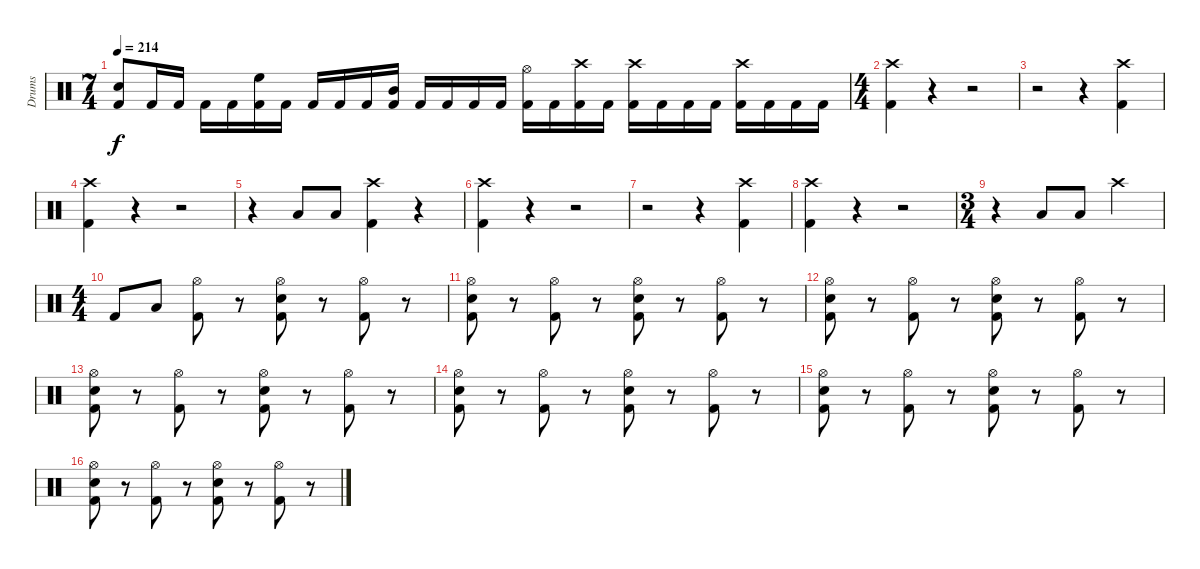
\track ("Drums" "Drums") {instrument percussion}
\staff {score}
\articulation defaults
\ts (7 4)
\tempo 214
\clef neutral
\ks c
("Kick (hit) 2" "Snare (hit) 2").8{dy f} "Kick (hit) 2".16 "Kick (hit) 2".16 "Kick (hit) 2".16 "Kick (hit) 2".16 ("Kick (hit) 2" "High Floor Tom (hit)").16 "Kick (hit) 2".16 "Kick (hit) 2".16 "Kick (hit) 2".16 "Kick (hit) 2".16 ("Kick (hit) 2" "Mid Tom (hit)").16 "Kick (hit) 2".16 "Kick (hit) 2".16 "Kick (hit) 2".16 "Kick (hit) 2".16 ("Kick (hit) 2" "Hi-Hat (open)").16 "Kick (hit) 2".16 ("Kick (hit) 2" "Crash high (hit)").16 "Kick (hit) 2".16 ("Kick (hit) 2" "Crash high (hit)").16 "Kick (hit) 2".16 "Kick (hit) 2".16 "Kick (hit) 2".16 ("Kick (hit) 2" "Crash high (hit)").16 "Kick (hit) 2".16 "Kick (hit) 2".16 "Kick (hit) 2".16 |
\ts (4 4)
("Kick (hit) 2" "Crash high (hit)").4 r.4 r.2 |
r.2 r.4 ("Kick (hit) 2" "Crash high (hit)").4 |
("Kick (hit) 2" "Crash high (hit)").4 r.4 r.2 |
r.4 "Low Floor Tom (hit)".8 "Low Floor Tom (hit)".8 ("Kick (hit) 2" "Crash high (hit)").4 r.4 |
("Kick (hit) 2" "Crash high (hit)").4 r.4 r.2 |
r.2 r.4 ("Kick (hit) 2" "Crash high (hit)").4 |
("Kick (hit) 2" "Crash high (hit)").4 r.4 r.2 |
\ts (3 4)
r.4 "Low Floor Tom (hit)".8 "Low Floor Tom (hit)".8 "Crash high (hit)".4 |
\ts (4 4)
"Kick (hit) 2".8 "Low Floor Tom (hit)".8 ("Hi-Hat (open)" "Kick (hit) 2").8 r.8 ("Snare (hit) 2" "Hi-Hat (open)" "Kick (hit) 2").8 r.8 ("Hi-Hat (open)" "Kick (hit) 2").8 r.8 |
("Snare (hit) 2" "Hi-Hat (open)" "Kick (hit) 2").8 r.8 ("Hi-Hat (open)" "Kick (hit) 2").8 r.8 ("Snare (hit) 2" "Hi-Hat (open)" "Kick (hit) 2").8 r.8 ("Hi-Hat (open)" "Kick (hit) 2").8 r.8 |
("Snare (hit) 2" "Hi-Hat (open)" "Kick (hit) 2").8 r.8 ("Hi-Hat (open)" "Kick (hit) 2").8 r.8 ("Snare (hit) 2" "Hi-Hat (open)" "Kick (hit) 2").8 r.8 ("Hi-Hat (open)" "Kick (hit) 2").8 r.8 |
("Snare (hit) 2" "Hi-Hat (open)" "Kick (hit) 2").8 r.8 ("Hi-Hat (open)" "Kick (hit) 2").8 r.8 ("Snare (hit) 2" "Hi-Hat (open)" "Kick (hit) 2").8 r.8 ("Hi-Hat (open)" "Kick (hit) 2").8 r.8 |
("Snare (hit) 2" "Hi-Hat (open)" "Kick (hit) 2").8 r.8 ("Hi-Hat (open)" "Kick (hit) 2").8 r.8 ("Snare (hit) 2" "Hi-Hat (open)" "Kick (hit) 2").8 r.8 ("Hi-Hat (open)" "Kick (hit) 2").8 r.8 |
("Snare (hit) 2" "Hi-Hat (open)" "Kick (hit) 2").8 r.8 ("Hi-Hat (open)" "Kick (hit) 2").8 r.8 ("Snare (hit) 2" "Hi-Hat (open)" "Kick (hit) 2").8 r.8 ("Hi-Hat (open)" "Kick (hit) 2").8 r.8 |
("Snare (hit) 2" "Hi-Hat (open)" "Kick (hit) 2").8 r.8 ("Hi-Hat (open)" "Kick (hit) 2").8 r.8 ("Snare (hit) 2" "Hi-Hat (open)" "Kick (hit) 2").8 r.8 ("Hi-Hat (open)" "Kick (hit) 2").8 r.8
